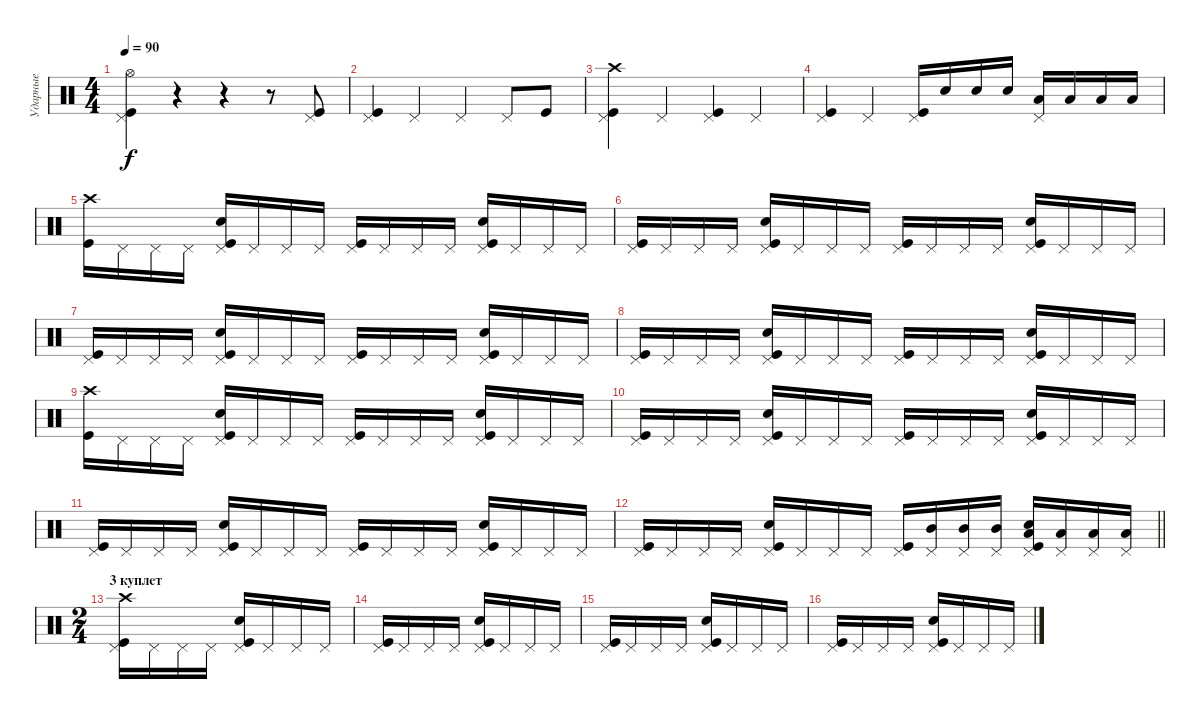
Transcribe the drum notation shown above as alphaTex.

\track ("Ударные" "Ударные") {instrument percussion}
\staff {score}
\articulation defaults
\ts (4 4)
\tempo 90
\clef neutral
\ks c
("Pedal Hi-Hat (hit)" "Kick (hit)" "Hi-Hat (open)").4{dy f} r.4 r.4 r.8 ("Pedal Hi-Hat (hit)" "Kick (hit)").8 |
("Pedal Hi-Hat (hit)" "Kick (hit)").4 "Pedal Hi-Hat (hit)".4 "Pedal Hi-Hat (hit)".4 "Pedal Hi-Hat (hit)".8 "Kick (hit)".8 |
("Pedal Hi-Hat (hit)" "Kick (hit)" "Crash high (hit)").4 "Pedal Hi-Hat (hit)".4 ("Pedal Hi-Hat (hit)" "Kick (hit)").4 "Pedal Hi-Hat (hit)".4 |
("Pedal Hi-Hat (hit)" "Kick (hit)").4 "Pedal Hi-Hat (hit)".4 ("Pedal Hi-Hat (hit)" "Kick (hit)").16 "Snare (hit) 2".16 "Snare (hit) 2".16 "Snare (hit) 2".16 ("Low Tom (hit)" "Pedal Hi-Hat (hit)").16 "Low Tom (hit)".16 "Low Tom (hit)".16 "Low Tom (hit)".16 |
("Crash high (hit)" "Kick (hit)").16 "Pedal Hi-Hat (hit)".16 "Pedal Hi-Hat (hit)".16 "Pedal Hi-Hat (hit)".16 ("Pedal Hi-Hat (hit)" "Kick (hit)" "Snare (hit) 2").16 "Pedal Hi-Hat (hit)".16 "Pedal Hi-Hat (hit)".16 "Pedal Hi-Hat (hit)".16 ("Pedal Hi-Hat (hit)" "Kick (hit)").16 "Pedal Hi-Hat (hit)".16 "Pedal Hi-Hat (hit)".16 "Pedal Hi-Hat (hit)".16 ("Pedal Hi-Hat (hit)" "Kick (hit)" "Snare (hit) 2").16 "Pedal Hi-Hat (hit)".16 "Pedal Hi-Hat (hit)".16 "Pedal Hi-Hat (hit)".16 |
("Pedal Hi-Hat (hit)" "Kick (hit)").16 "Pedal Hi-Hat (hit)".16 "Pedal Hi-Hat (hit)".16 "Pedal Hi-Hat (hit)".16 ("Pedal Hi-Hat (hit)" "Kick (hit)" "Snare (hit) 2").16 "Pedal Hi-Hat (hit)".16 "Pedal Hi-Hat (hit)".16 "Pedal Hi-Hat (hit)".16 ("Pedal Hi-Hat (hit)" "Kick (hit)").16 "Pedal Hi-Hat (hit)".16 "Pedal Hi-Hat (hit)".16 "Pedal Hi-Hat (hit)".16 ("Pedal Hi-Hat (hit)" "Kick (hit)" "Snare (hit) 2").16 "Pedal Hi-Hat (hit)".16 "Pedal Hi-Hat (hit)".16 "Pedal Hi-Hat (hit)".16 |
("Pedal Hi-Hat (hit)" "Kick (hit)").16 "Pedal Hi-Hat (hit)".16 "Pedal Hi-Hat (hit)".16 "Pedal Hi-Hat (hit)".16 ("Pedal Hi-Hat (hit)" "Kick (hit)" "Snare (hit) 2").16 "Pedal Hi-Hat (hit)".16 "Pedal Hi-Hat (hit)".16 "Pedal Hi-Hat (hit)".16 ("Pedal Hi-Hat (hit)" "Kick (hit)").16 "Pedal Hi-Hat (hit)".16 "Pedal Hi-Hat (hit)".16 "Pedal Hi-Hat (hit)".16 ("Pedal Hi-Hat (hit)" "Kick (hit)" "Snare (hit) 2").16 "Pedal Hi-Hat (hit)".16 "Pedal Hi-Hat (hit)".16 "Pedal Hi-Hat (hit)".16 |
("Pedal Hi-Hat (hit)" "Kick (hit)").16 "Pedal Hi-Hat (hit)".16 "Pedal Hi-Hat (hit)".16 "Pedal Hi-Hat (hit)".16 ("Pedal Hi-Hat (hit)" "Kick (hit)" "Snare (hit) 2").16 "Pedal Hi-Hat (hit)".16 "Pedal Hi-Hat (hit)".16 "Pedal Hi-Hat (hit)".16 ("Pedal Hi-Hat (hit)" "Kick (hit)").16 "Pedal Hi-Hat (hit)".16 "Pedal Hi-Hat (hit)".16 "Pedal Hi-Hat (hit)".16 ("Pedal Hi-Hat (hit)" "Kick (hit)" "Snare (hit) 2").16 "Pedal Hi-Hat (hit)".16 "Pedal Hi-Hat (hit)".16 "Pedal Hi-Hat (hit)".16 |
("Crash high (hit)" "Kick (hit)").16 "Pedal Hi-Hat (hit)".16 "Pedal Hi-Hat (hit)".16 "Pedal Hi-Hat (hit)".16 ("Pedal Hi-Hat (hit)" "Kick (hit)" "Snare (hit) 2").16 "Pedal Hi-Hat (hit)".16 "Pedal Hi-Hat (hit)".16 "Pedal Hi-Hat (hit)".16 ("Pedal Hi-Hat (hit)" "Kick (hit)").16 "Pedal Hi-Hat (hit)".16 "Pedal Hi-Hat (hit)".16 "Pedal Hi-Hat (hit)".16 ("Pedal Hi-Hat (hit)" "Kick (hit)" "Snare (hit) 2").16 "Pedal Hi-Hat (hit)".16 "Pedal Hi-Hat (hit)".16 "Pedal Hi-Hat (hit)".16 |
("Pedal Hi-Hat (hit)" "Kick (hit)").16 "Pedal Hi-Hat (hit)".16 "Pedal Hi-Hat (hit)".16 "Pedal Hi-Hat (hit)".16 ("Pedal Hi-Hat (hit)" "Kick (hit)" "Snare (hit) 2").16 "Pedal Hi-Hat (hit)".16 "Pedal Hi-Hat (hit)".16 "Pedal Hi-Hat (hit)".16 ("Pedal Hi-Hat (hit)" "Kick (hit)").16 "Pedal Hi-Hat (hit)".16 "Pedal Hi-Hat (hit)".16 "Pedal Hi-Hat (hit)".16 ("Pedal Hi-Hat (hit)" "Kick (hit)" "Snare (hit) 2").16 "Pedal Hi-Hat (hit)".16 "Pedal Hi-Hat (hit)".16 "Pedal Hi-Hat (hit)".16 |
("Pedal Hi-Hat (hit)" "Kick (hit)").16 "Pedal Hi-Hat (hit)".16 "Pedal Hi-Hat (hit)".16 "Pedal Hi-Hat (hit)".16 ("Pedal Hi-Hat (hit)" "Kick (hit)" "Snare (hit) 2").16 "Pedal Hi-Hat (hit)".16 "Pedal Hi-Hat (hit)".16 "Pedal Hi-Hat (hit)".16 ("Pedal Hi-Hat (hit)" "Kick (hit)").16 "Pedal Hi-Hat (hit)".16 "Pedal Hi-Hat (hit)".16 "Pedal Hi-Hat (hit)".16 ("Pedal Hi-Hat (hit)" "Kick (hit)" "Snare (hit) 2").16 "Pedal Hi-Hat (hit)".16 "Pedal Hi-Hat (hit)".16 "Pedal Hi-Hat (hit)".16 |
\barLineRight lightlight
("Pedal Hi-Hat (hit)" "Kick (hit)").16 "Pedal Hi-Hat (hit)".16 "Pedal Hi-Hat (hit)".16 "Pedal Hi-Hat (hit)".16 ("Pedal Hi-Hat (hit)" "Kick (hit)" "Snare (hit) 2").16 "Pedal Hi-Hat (hit)".16 "Pedal Hi-Hat (hit)".16 "Pedal Hi-Hat (hit)".16 ("Pedal Hi-Hat (hit)" "Kick (hit)").16 ("Pedal Hi-Hat (hit)" "Mid Tom (hit)").16 ("Pedal Hi-Hat (hit)" "Mid Tom (hit)").16 ("Pedal Hi-Hat (hit)" "Mid Tom (hit)").16 ("Pedal Hi-Hat (hit)" "Kick (hit)" "Snare (hit) 2" "Low Tom (hit)").16 ("Pedal Hi-Hat (hit)" "Low Tom (hit)").16 ("Pedal Hi-Hat (hit)" "Low Tom (hit)").16 ("Pedal Hi-Hat (hit)" "Low Tom (hit)").16 |
\ts (2 4)
\section ("" "3 куплет")
("Pedal Hi-Hat (hit)" "Crash high (hit)" "Kick (hit)").16 "Pedal Hi-Hat (hit)".16 "Pedal Hi-Hat (hit)".16 "Pedal Hi-Hat (hit)".16 ("Pedal Hi-Hat (hit)" "Kick (hit)" "Snare (hit) 2").16 "Pedal Hi-Hat (hit)".16 "Pedal Hi-Hat (hit)".16 "Pedal Hi-Hat (hit)".16 |
("Pedal Hi-Hat (hit)" "Kick (hit)").16 "Pedal Hi-Hat (hit)".16 "Pedal Hi-Hat (hit)".16 "Pedal Hi-Hat (hit)".16 ("Pedal Hi-Hat (hit)" "Kick (hit)" "Snare (hit) 2").16 "Pedal Hi-Hat (hit)".16 "Pedal Hi-Hat (hit)".16 "Pedal Hi-Hat (hit)".16 |
("Pedal Hi-Hat (hit)" "Kick (hit)").16 "Pedal Hi-Hat (hit)".16 "Pedal Hi-Hat (hit)".16 "Pedal Hi-Hat (hit)".16 ("Pedal Hi-Hat (hit)" "Kick (hit)" "Snare (hit) 2").16 "Pedal Hi-Hat (hit)".16 "Pedal Hi-Hat (hit)".16 "Pedal Hi-Hat (hit)".16 |
("Pedal Hi-Hat (hit)" "Kick (hit)").16 "Pedal Hi-Hat (hit)".16 "Pedal Hi-Hat (hit)".16 "Pedal Hi-Hat (hit)".16 ("Pedal Hi-Hat (hit)" "Kick (hit)" "Snare (hit) 2").16 "Pedal Hi-Hat (hit)".16 "Pedal Hi-Hat (hit)".16 "Pedal Hi-Hat (hit)".16
